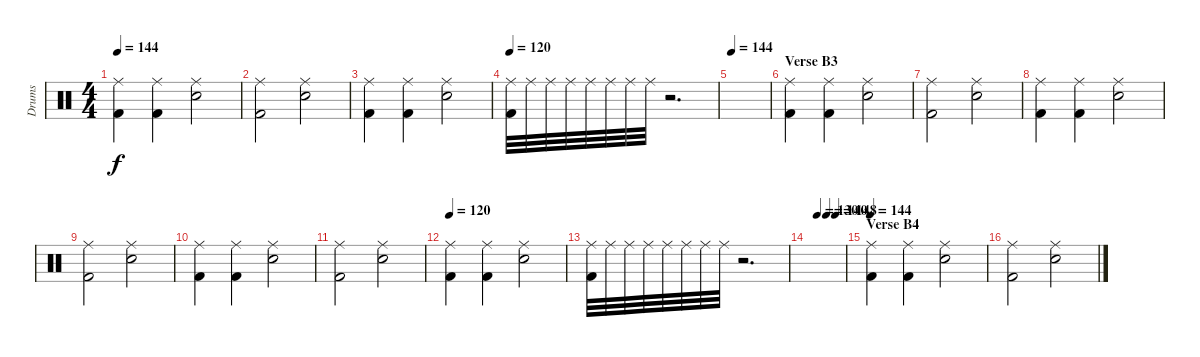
\track ("Drums" "Drums") {instrument percussion}
\staff {score}
\articulation defaults
\ts (4 4)
\tempo 144
\clef neutral
\ks c
("Ride (middle)" "Kick (hit) 2").4{dy f} ("Ride (middle)" "Kick (hit) 2").4 ("Snare (hit) 2" "Ride (middle)").2 |
("Ride (middle)" "Kick (hit) 2").2 ("Snare (hit) 2" "Ride (middle)").2 |
("Ride (middle)" "Kick (hit) 2").4 ("Ride (middle)" "Kick (hit) 2").4 ("Snare (hit) 2" "Ride (middle)").2 |
\tempo 120
("Ride (middle)" "Kick (hit) 2").32 "Ride (middle)".32 "Ride (middle)".32 "Ride (middle)".32 "Ride (middle)".32 "Ride (middle)".32 "Ride (middle)".32 "Ride (middle)".32 r.2{d} |
\tempo 144
|
\section ("" "Verse B3")
("Ride (middle)" "Kick (hit) 2").4 ("Ride (middle)" "Kick (hit) 2").4 ("Snare (hit) 2" "Ride (middle)").2 |
("Ride (middle)" "Kick (hit) 2").2 ("Snare (hit) 2" "Ride (middle)").2 |
("Ride (middle)" "Kick (hit) 2").4 ("Ride (middle)" "Kick (hit) 2").4 ("Snare (hit) 2" "Ride (middle)").2 |
("Ride (middle)" "Kick (hit) 2").2 ("Snare (hit) 2" "Ride (middle)").2 |
("Ride (middle)" "Kick (hit) 2").4 ("Ride (middle)" "Kick (hit) 2").4 ("Snare (hit) 2" "Ride (middle)").2 |
("Ride (middle)" "Kick (hit) 2").2 ("Snare (hit) 2" "Ride (middle)").2 |
\tempo 120
("Ride (middle)" "Kick (hit) 2").4 ("Ride (middle)" "Kick (hit) 2").4 ("Snare (hit) 2" "Ride (middle)").2 |
("Ride (middle)" "Kick (hit) 2").32 "Ride (middle)".32 "Ride (middle)".32 "Ride (middle)".32 "Ride (middle)".32 "Ride (middle)".32 "Ride (middle)".32 "Ride (middle)".32 r.2{d} |
\tempo (130 0.25)
\tempo (140 0.5)
\tempo (148 0.75)
|
\section ("" "Verse B4")
\tempo 144
("Ride (middle)" "Kick (hit) 2").4 ("Ride (middle)" "Kick (hit) 2").4 ("Snare (hit) 2" "Ride (middle)").2 |
("Ride (middle)" "Kick (hit) 2").2 ("Snare (hit) 2" "Ride (middle)").2
